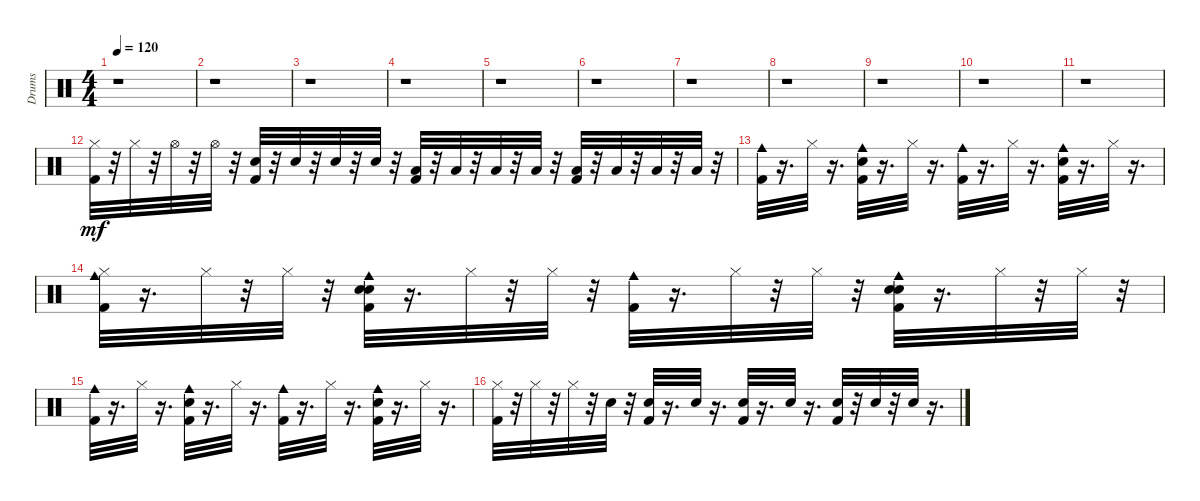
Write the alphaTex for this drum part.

\track ("Drums" "Drums") {instrument percussion}
\staff {score}
\articulation defaults
\ts (4 4)
\tempo 120
\clef neutral
\ks c
r.1{dy mf} |
r.1 |
r.1 |
r.1 |
r.1 |
r.1 |
r.1 |
r.1 |
r.1 |
r.1 |
r.1 |
("Hi-Hat (closed)" "Kick (hit) 2").32 r.32 "Hi-Hat (closed)".32 r.32 "Hi-Hat (open)".32 r.32 "Hi-Hat (open)".32 r.32 ("Electric Snare (hit)" "Kick (hit) 2").32 r.32 "Electric Snare (hit)".32 r.32 "Electric Snare (hit)".32 r.32 "Electric Snare (hit)".32 r.32 ("Low Tom (hit)" "Kick (hit) 2").32 r.32 "Low Tom (hit)".32 r.32 "Low Tom (hit)".32 r.32 "Low Tom (hit)".32 r.32 ("Low Floor Tom (hit)" "Kick (hit) 2").32 r.32 "Low Floor Tom (hit)".32 r.32 "Low Floor Tom (hit)".32 r.32 "Low Floor Tom (hit)".32 r.32 |
("Cowbell medium (hit)" "Kick (hit) 2").32 r.16{d} "Hi-Hat (closed)".32 r.16{d} ("Electric Snare (hit)" "Cowbell medium (hit)" "Kick (hit) 2").32 r.16{d} "Hi-Hat (closed)".32 r.16{d} ("Cowbell medium (hit)" "Kick (hit) 2").32 r.16{d} "Hi-Hat (closed)".32 r.16{d} ("Electric Snare (hit)" "Cowbell medium (hit)" "Kick (hit) 2").32 r.16{d} "Hi-Hat (closed)".32 r.16{d} |
("Hi-Hat (closed)" "Cowbell medium (hit)" "Kick (hit) 2").32 r.16{d} "Hi-Hat (closed)".32 r.32 "Hi-Hat (closed)".32 r.32 ("Electric Snare (hit)" "Hand Clap (hit)" "Cowbell medium (hit)" "Kick (hit) 2").32 r.16{d} "Hi-Hat (closed)".32 r.32 "Hi-Hat (closed)".32 r.32 ("Cowbell medium (hit)" "Kick (hit) 2").32 r.16{d} "Hi-Hat (closed)".32 r.32 "Hi-Hat (closed)".32 r.32 ("Electric Snare (hit)" "Hand Clap (hit)" "Cowbell medium (hit)" "Kick (hit) 2").32 r.16{d} "Hi-Hat (closed)".32 r.32 "Hi-Hat (closed)".32 r.32 |
("Cowbell medium (hit)" "Kick (hit) 2").32 r.16{d} "Hi-Hat (closed)".32 r.16{d} ("Electric Snare (hit)" "Cowbell medium (hit)" "Kick (hit) 2").32 r.16{d} "Hi-Hat (closed)".32 r.16{d} ("Cowbell medium (hit)" "Kick (hit) 2").32 r.16{d} "Hi-Hat (closed)".32 r.16{d} ("Electric Snare (hit)" "Cowbell medium (hit)" "Kick (hit) 2").32 r.16{d} "Hi-Hat (closed)".32 r.16{d} |
("Hi-Hat (closed)" "Kick (hit) 2").32 r.32 "Hi-Hat (closed)".32 r.32 "Hi-Hat (closed)".32 r.32 "Electric Snare (hit)".32 r.32 ("Electric Snare (hit)" "Kick (hit) 2").32 r.16{d} "Electric Snare (hit)".32 r.16{d} ("Electric Snare (hit)" "Kick (hit) 2").32 r.16{d} "Electric Snare (hit)".32 r.16{d} ("Electric Snare (hit)" "Kick (hit) 2").32 r.32 "Electric Snare (hit)".32 r.32 "Electric Snare (hit)".32 r.16{d}
